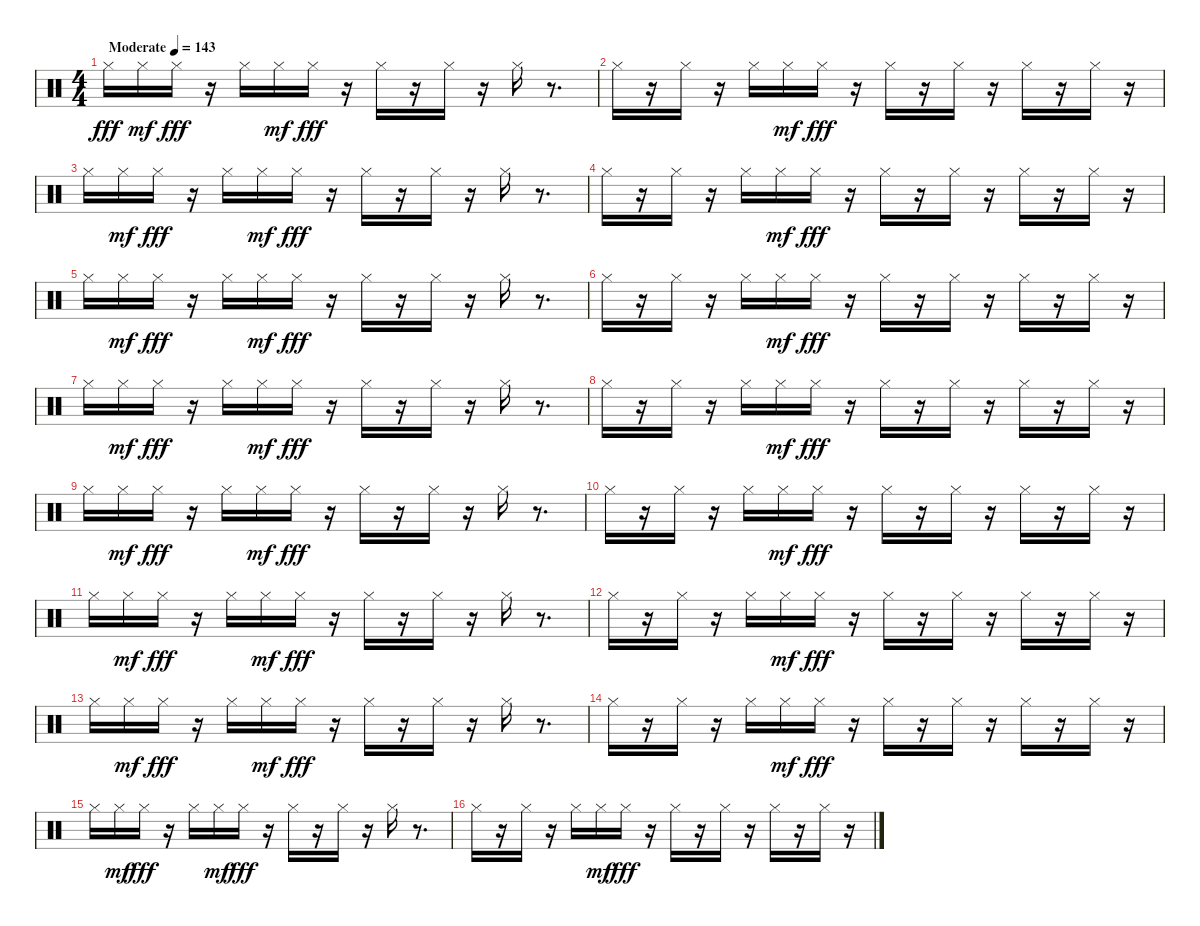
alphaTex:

\track "" {instrument percussion}
\staff {score}
\articulation defaults
\ts (4 4)
\tempo (143 "Moderate")
\clef neutral
\ks c "Hi-Hat (closed)".16{dy fff} "Hi-Hat (closed)".16{dy mf} "Hi-Hat (closed)".16{dy fff}
r.16 "Hi-Hat (closed)".16 "Hi-Hat (closed)".16{dy mf} "Hi-Hat (closed)".16{dy fff} r.16 "Hi-Hat (closed)".16 r.16 "Hi-Hat (closed)".16 r.16 "Hi-Hat (closed)".16 r.8{d} |
"Hi-Hat (closed)".16 r.16 "Hi-Hat (closed)".16 r.16 "Hi-Hat (closed)".16 "Hi-Hat (closed)".16{dy mf} "Hi-Hat (closed)".16{dy fff} r.16 "Hi-Hat (closed)".16 r.16 "Hi-Hat (closed)".16 r.16 "Hi-Hat (closed)".16 r.16 "Hi-Hat (closed)".16 r.16 |
"Hi-Hat (closed)".16 "Hi-Hat (closed)".16{dy mf} "Hi-Hat (closed)".16{dy fff} r.16 "Hi-Hat (closed)".16 "Hi-Hat (closed)".16{dy mf} "Hi-Hat (closed)".16{dy fff} r.16 "Hi-Hat (closed)".16 r.16 "Hi-Hat (closed)".16 r.16 "Hi-Hat (closed)".16 r.8{d} |
"Hi-Hat (closed)".16 r.16 "Hi-Hat (closed)".16 r.16 "Hi-Hat (closed)".16 "Hi-Hat (closed)".16{dy mf} "Hi-Hat (closed)".16{dy fff} r.16 "Hi-Hat (closed)".16 r.16 "Hi-Hat (closed)".16 r.16 "Hi-Hat (closed)".16 r.16 "Hi-Hat (closed)".16 r.16 |
"Hi-Hat (closed)".16 "Hi-Hat (closed)".16{dy mf} "Hi-Hat (closed)".16{dy fff} r.16 "Hi-Hat (closed)".16 "Hi-Hat (closed)".16{dy mf} "Hi-Hat (closed)".16{dy fff} r.16 "Hi-Hat (closed)".16 r.16 "Hi-Hat (closed)".16 r.16 "Hi-Hat (closed)".16 r.8{d} |
"Hi-Hat (closed)".16 r.16 "Hi-Hat (closed)".16 r.16 "Hi-Hat (closed)".16 "Hi-Hat (closed)".16{dy mf} "Hi-Hat (closed)".16{dy fff} r.16 "Hi-Hat (closed)".16 r.16 "Hi-Hat (closed)".16 r.16 "Hi-Hat (closed)".16 r.16 "Hi-Hat (closed)".16 r.16 |
"Hi-Hat (closed)".16 "Hi-Hat (closed)".16{dy mf} "Hi-Hat (closed)".16{dy fff} r.16 "Hi-Hat (closed)".16 "Hi-Hat (closed)".16{dy mf} "Hi-Hat (closed)".16{dy fff} r.16 "Hi-Hat (closed)".16 r.16 "Hi-Hat (closed)".16 r.16 "Hi-Hat (closed)".16 r.8{d} |
"Hi-Hat (closed)".16 r.16 "Hi-Hat (closed)".16 r.16 "Hi-Hat (closed)".16 "Hi-Hat (closed)".16{dy mf} "Hi-Hat (closed)".16{dy fff} r.16 "Hi-Hat (closed)".16 r.16 "Hi-Hat (closed)".16 r.16 "Hi-Hat (closed)".16 r.16 "Hi-Hat (closed)".16 r.16 |
"Hi-Hat (closed)".16 "Hi-Hat (closed)".16{dy mf} "Hi-Hat (closed)".16{dy fff} r.16 "Hi-Hat (closed)".16 "Hi-Hat (closed)".16{dy mf} "Hi-Hat (closed)".16{dy fff} r.16 "Hi-Hat (closed)".16 r.16 "Hi-Hat (closed)".16 r.16 "Hi-Hat (closed)".16 r.8{d} |
"Hi-Hat (closed)".16 r.16 "Hi-Hat (closed)".16 r.16 "Hi-Hat (closed)".16 "Hi-Hat (closed)".16{dy mf} "Hi-Hat (closed)".16{dy fff} r.16 "Hi-Hat (closed)".16 r.16 "Hi-Hat (closed)".16 r.16 "Hi-Hat (closed)".16 r.16 "Hi-Hat (closed)".16 r.16 |
"Hi-Hat (closed)".16 "Hi-Hat (closed)".16{dy mf} "Hi-Hat (closed)".16{dy fff} r.16 "Hi-Hat (closed)".16 "Hi-Hat (closed)".16{dy mf} "Hi-Hat (closed)".16{dy fff} r.16 "Hi-Hat (closed)".16 r.16 "Hi-Hat (closed)".16 r.16 "Hi-Hat (closed)".16 r.8{d} |
"Hi-Hat (closed)".16 r.16 "Hi-Hat (closed)".16 r.16 "Hi-Hat (closed)".16 "Hi-Hat (closed)".16{dy mf} "Hi-Hat (closed)".16{dy fff} r.16 "Hi-Hat (closed)".16 r.16 "Hi-Hat (closed)".16 r.16 "Hi-Hat (closed)".16 r.16 "Hi-Hat (closed)".16 r.16 |
"Hi-Hat (closed)".16 "Hi-Hat (closed)".16{dy mf} "Hi-Hat (closed)".16{dy fff} r.16 "Hi-Hat (closed)".16 "Hi-Hat (closed)".16{dy mf} "Hi-Hat (closed)".16{dy fff} r.16 "Hi-Hat (closed)".16 r.16 "Hi-Hat (closed)".16 r.16 "Hi-Hat (closed)".16 r.8{d} |
"Hi-Hat (closed)".16 r.16 "Hi-Hat (closed)".16 r.16 "Hi-Hat (closed)".16 "Hi-Hat (closed)".16{dy mf} "Hi-Hat (closed)".16{dy fff} r.16 "Hi-Hat (closed)".16 r.16 "Hi-Hat (closed)".16 r.16 "Hi-Hat (closed)".16 r.16 "Hi-Hat (closed)".16 r.16 |
"Hi-Hat (closed)".16 "Hi-Hat (closed)".16{dy mf} "Hi-Hat (closed)".16{dy fff} r.16 "Hi-Hat (closed)".16 "Hi-Hat (closed)".16{dy mf} "Hi-Hat (closed)".16{dy fff} r.16 "Hi-Hat (closed)".16 r.16 "Hi-Hat (closed)".16 r.16 "Hi-Hat (closed)".16 r.8{d} |
"Hi-Hat (closed)".16 r.16 "Hi-Hat (closed)".16 r.16 "Hi-Hat (closed)".16 "Hi-Hat (closed)".16{dy mf} "Hi-Hat (closed)".16{dy fff} r.16 "Hi-Hat (closed)".16 r.16 "Hi-Hat (closed)".16 r.16 "Hi-Hat (closed)".16 r.16 "Hi-Hat (closed)".16 r.16
